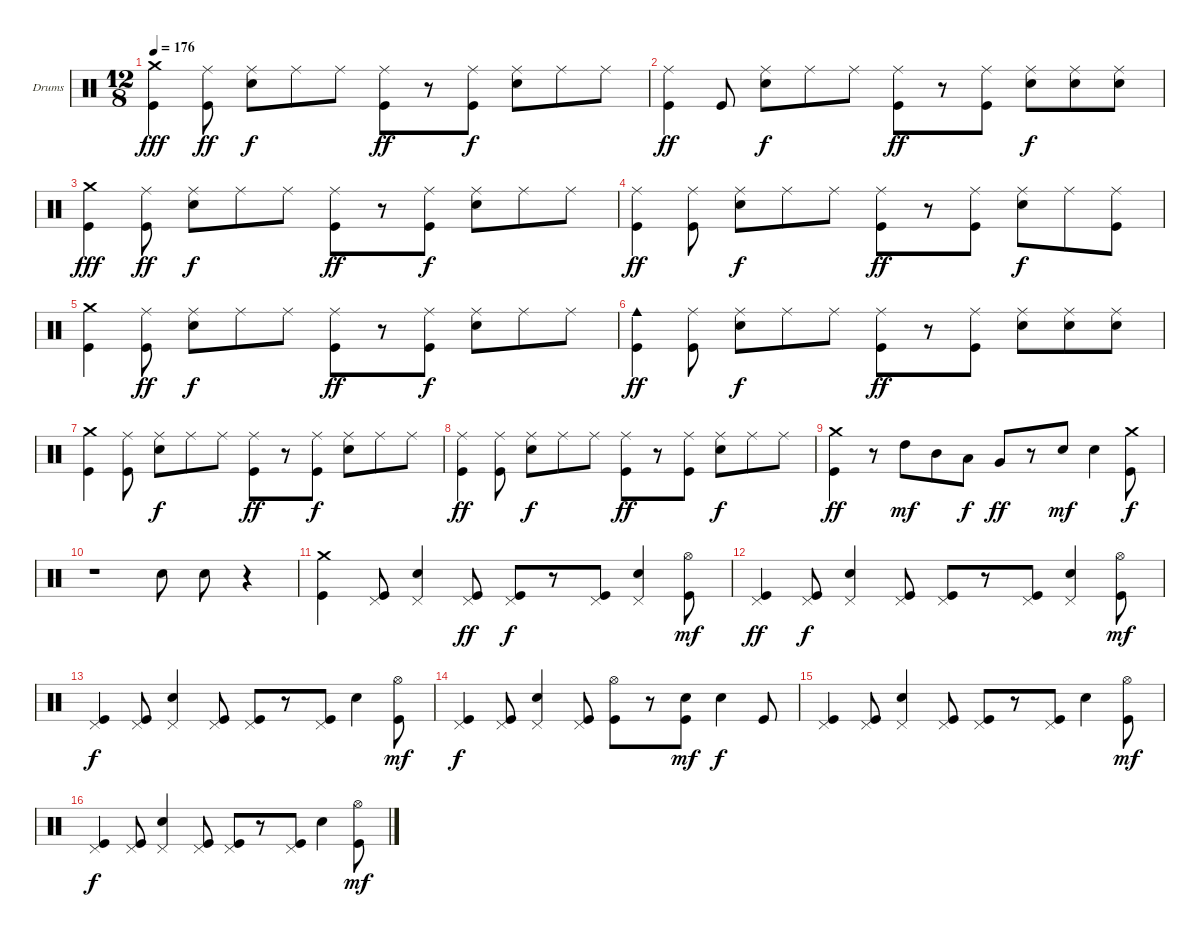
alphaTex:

\defaultSystemsLayout 4
\bracketExtendMode groupsimilarinstruments
\firstSystemTrackNameOrientation horizontal
\otherSystemsTrackNameOrientation horizontal
\track ("Drumkit" "Drums") {instrument percussion}
\staff {score}
\articulation defaults
\ts (12 8)
\tempo 176
\clef neutral
\scale
0.333333
\ks c
("Crash medium (hit)" "Kick (hit)").4{dy fff} ("Ride (middle)" "Kick (hit)").8{dy ff} ("Ride (middle)" "Snare (hit) 2").8{dy f} "Ride (middle)".8 "Ride (middle)".8 ("Ride (middle)" "Kick (hit)").8{dy ff} r.8 ("Ride (middle)" "Kick (hit)").8{dy f} ("Ride (middle)" "Snare (hit) 2").8 "Ride (middle)".8 "Ride (middle)".8 |
\scale
0.333333 ("Ride (middle)" "Kick (hit)").4{dy ff} "Kick (hit)".8 ("Ride (middle)" "Snare (hit) 2").8{dy f} "Ride (middle)".8 "Ride (middle)".8 ("Ride (middle)" "Kick (hit)").8{dy ff} r.8 ("Ride (middle)" "Kick (hit)").8 ("Ride (middle)" "Snare (hit) 2").8{dy f} ("Ride (middle)" "Snare (hit) 2").8 ("Ride (middle)" "Snare (hit) 2").8 |
\scale
0.333333 ("Crash medium (hit)" "Kick (hit)").4{dy fff} ("Ride (middle)" "Kick (hit)").8{dy ff} ("Ride (middle)" "Snare (hit) 2").8{dy f} "Ride (middle)".8 "Ride (middle)".8 ("Ride (middle)" "Kick (hit)").8{dy ff} r.8 ("Ride (middle)" "Kick (hit)").8{dy f} ("Ride (middle)" "Snare (hit) 2").8 "Ride (middle)".8 "Ride (middle)".8 |
\scale
0.333333 ("Ride (middle)" "Kick (hit)").4{dy ff} ("Ride (middle)" "Kick (hit)").8 ("Ride (middle)" "Snare (hit) 2").8{dy f} "Ride (middle)".8 "Ride (middle)".8 ("Ride (middle)" "Kick (hit)").8{dy ff} r.8 ("Ride (middle)" "Kick (hit)").8 ("Ride (middle)" "Snare (hit) 2").8{dy f} "Ride (middle)".8 ("Ride (middle)" "Kick (hit)").8 |
\scale
0.333333 ("Crash medium (hit)" "Kick (hit)").4 ("Ride (middle)" "Kick (hit)").8{dy ff} ("Ride (middle)" "Snare (hit) 2").8{dy f} "Ride (middle)".8 "Ride (middle)".8 ("Ride (middle)" "Kick (hit)").8{dy ff} r.8 ("Ride (middle)" "Kick (hit)").8{dy f} ("Ride (middle)" "Snare (hit) 2").8 "Ride (middle)".8 "Ride (middle)".8 |
\scale
0.333333 ("Cowbell medium (hit)" "Kick (hit)").4{dy ff} ("Ride (middle)" "Kick (hit)").8 ("Ride (middle)" "Snare (hit) 2").8{dy f} "Ride (middle)".8 "Ride (middle)".8 ("Ride (middle)" "Kick (hit)").8{dy ff} r.8 ("Ride (middle)" "Kick (hit)").8 ("Ride (middle)" "Snare (hit) 2").8 ("Ride (middle)" "Snare (hit) 2").8 ("Ride (middle)" "Snare (hit) 2").8 |
\scale
0.333333 ("Crash medium (hit)" "Kick (hit)").4 ("Ride (middle)" "Kick (hit)").8 ("Ride (middle)" "Snare (hit) 2").8{dy f} "Ride (middle)".8 "Ride (middle)".8 ("Ride (middle)" "Kick (hit)").8{dy ff} r.8 ("Ride (middle)" "Kick (hit)").8{dy f} ("Ride (middle)" "Snare (hit) 2").8 "Ride (middle)".8 "Ride (middle)".8 |
\scale
0.333333 ("Ride (middle)" "Kick (hit)").4{dy ff} ("Ride (middle)" "Kick (hit)").8 ("Ride (middle)" "Snare (hit) 2").8{dy f} "Ride (middle)".8 "Ride (middle)".8 ("Ride (middle)" "Kick (hit)").8{dy ff} r.8 ("Ride (middle)" "Kick (hit)").8 ("Ride (middle)" "Snare (hit) 2").8{dy f} "Ride (middle)".8 "Ride (middle)".8 |
\scale
0.333333 ("Crash medium (hit)" "Kick (hit)").4{dy ff} r.8 "High Tom (hit)".8{dy mf} "Mid Tom (hit)".8 "Low Tom (hit)".8{dy f} "Very Low Tom (hit)".8{dy ff} r.8 "Snare (hit) 2".8{dy mf} "Snare (hit) 2".4 ("Crash medium (hit)" "Kick (hit)").8{dy f} |
\scale
0.333333 r.1 "Snare (hit) 2".8 "Snare (hit) 2".8 r.4 |
\scale
0.333333 ("Crash medium (hit)" "Kick (hit)").4 ("Pedal Hi-Hat (hit)" "Kick (hit)").8 ("Snare (hit) 2" "Pedal Hi-Hat (hit)").4 ("Pedal Hi-Hat (hit)" "Kick (hit)").8{dy ff} ("Pedal Hi-Hat (hit)" "Kick (hit)").8{dy f} r.8 ("Pedal Hi-Hat (hit)" "Kick (hit)").8 ("Snare (hit) 2" "Pedal Hi-Hat (hit)").4 ("Hi-Hat (open)" "Kick (hit)").8{dy mf} |
\scale
0.333333 ("Pedal Hi-Hat (hit)" "Kick (hit)").4{dy ff} ("Pedal Hi-Hat (hit)" "Kick (hit)").8{dy f} ("Snare (hit) 2" "Pedal Hi-Hat (hit)").4 ("Pedal Hi-Hat (hit)" "Kick (hit)").8 ("Pedal Hi-Hat (hit)" "Kick (hit)").8 r.8 ("Pedal Hi-Hat (hit)" "Kick (hit)").8 ("Snare (hit) 2" "Pedal Hi-Hat (hit)").4 ("Hi-Hat (open)" "Kick (hit)").8{dy mf} |
\scale
0.333333 ("Pedal Hi-Hat (hit)" "Kick (hit)").4{dy f} ("Pedal Hi-Hat (hit)" "Kick (hit)").8 ("Snare (hit) 2" "Pedal Hi-Hat (hit)").4 ("Pedal Hi-Hat (hit)" "Kick (hit)").8 ("Pedal Hi-Hat (hit)" "Kick (hit)").8 r.8 ("Pedal Hi-Hat (hit)" "Kick (hit)").8 "Snare (hit) 2".4 ("Hi-Hat (open)" "Kick (hit)").8{dy mf} |
\scale
0.333333 ("Pedal Hi-Hat (hit)" "Kick (hit)").4{dy f} ("Pedal Hi-Hat (hit)" "Kick (hit)").8 ("Snare (hit) 2" "Pedal Hi-Hat (hit)").4 ("Pedal Hi-Hat (hit)" "Kick (hit)").8 ("Hi-Hat (open)" "Kick (hit)").8 r.8 ("Snare (hit) 2" "Kick (hit)").8{dy mf} "Snare (hit) 2".4{dy f} "Kick (hit)".8 |
\scale
0.333333 ("Pedal Hi-Hat (hit)" "Kick (hit)").4 ("Pedal Hi-Hat (hit)" "Kick (hit)").8 ("Snare (hit) 2" "Pedal Hi-Hat (hit)").4 ("Pedal Hi-Hat (hit)" "Kick (hit)").8 ("Pedal Hi-Hat (hit)" "Kick (hit)").8 r.8 ("Pedal Hi-Hat (hit)" "Kick (hit)").8 "Snare (hit) 2".4 ("Hi-Hat (open)" "Kick (hit)").8{dy mf} |
\scale
0.333333 ("Pedal Hi-Hat (hit)" "Kick (hit)").4{dy f} ("Pedal Hi-Hat (hit)" "Kick (hit)").8 ("Snare (hit) 2" "Pedal Hi-Hat (hit)").4 ("Pedal Hi-Hat (hit)" "Kick (hit)").8 ("Pedal Hi-Hat (hit)" "Kick (hit)").8 r.8 ("Pedal Hi-Hat (hit)" "Kick (hit)").8 "Snare (hit) 2".4 ("Hi-Hat (open)" "Kick (hit)").8{dy mf}
